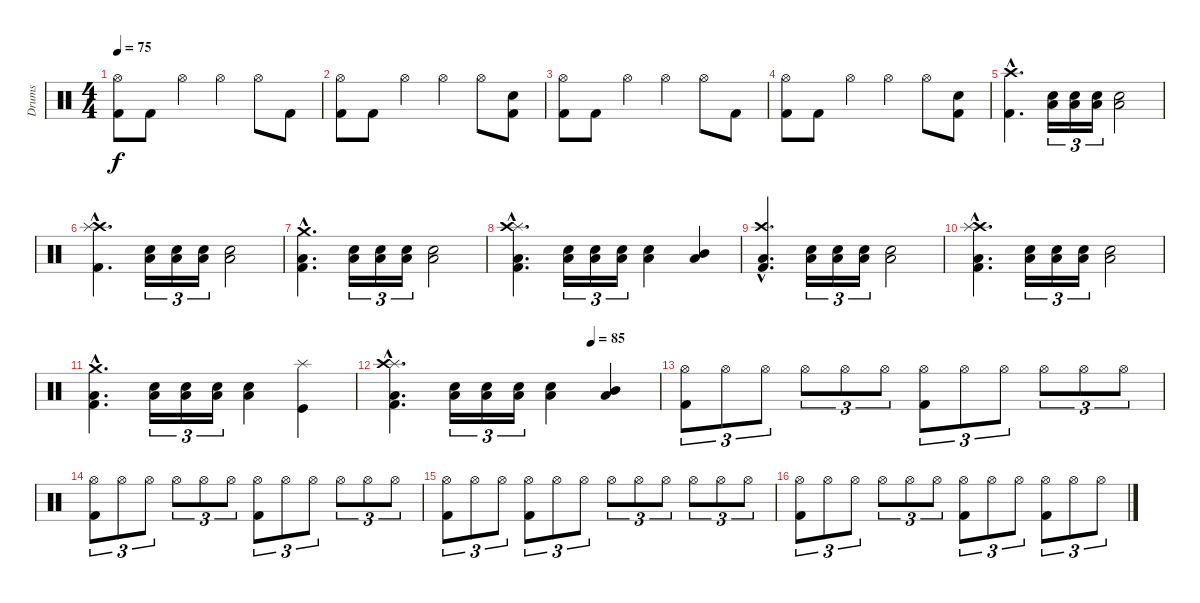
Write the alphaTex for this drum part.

\track ("Drums" "Drums") {instrument percussion}
\staff {score}
\articulation defaults
\ts (4 4)
\tempo 75
\clef neutral
\ks c
("Hi-Hat (open)" "Kick (hit) 2").8{dy f} "Kick (hit) 2".8 "Hi-Hat (open)".4 "Hi-Hat (open)".4 "Hi-Hat (open)".8 "Kick (hit) 2".8 |
("Hi-Hat (open)" "Kick (hit) 2").8 "Kick (hit) 2".8 "Hi-Hat (open)".4 "Hi-Hat (open)".4 "Hi-Hat (open)".8 ("Kick (hit) 2" "Snare (hit) 2").8 |
("Hi-Hat (open)" "Kick (hit) 2").8 "Kick (hit) 2".8 "Hi-Hat (open)".4 "Hi-Hat (open)".4 "Hi-Hat (open)".8 "Kick (hit) 2".8 |
("Hi-Hat (open)" "Kick (hit) 2").8 "Kick (hit) 2".8 "Hi-Hat (open)".4 "Hi-Hat (open)".4 "Hi-Hat (open)".8 ("Kick (hit) 2" "Snare (hit) 2").8 |
("Crash high (hit)"{hac} "Kick (hit) 2"{hac}).4{d} ("Snare (hit) 2" "Low Floor Tom (hit)").16{tu (3 2)} ("Snare (hit) 2" "Low Floor Tom (hit)").16{tu (3 2)} ("Snare (hit) 2" "Low Floor Tom (hit)").16{tu (3 2)} ("Snare (hit) 2" "Low Floor Tom (hit)").2 |
("Crash high (hit)"{hac} "Splash (hit)"{hac} "Kick (hit) 2"{hac}).4{d} ("Snare (hit) 2" "Low Floor Tom (hit)").16{tu (3 2)} ("Snare (hit) 2" "Low Floor Tom (hit)").16{tu (3 2)} ("Snare (hit) 2" "Low Floor Tom (hit)").16{tu (3 2)} ("Snare (hit) 2" "Low Floor Tom (hit)").2 |
("Crash medium (hit)"{hac} "Kick (hit) 2"{hac} "Low Floor Tom (hit)"{hac}).4{d} ("Snare (hit) 2" "Low Floor Tom (hit)").16{tu (3 2)} ("Snare (hit) 2" "Low Floor Tom (hit)").16{tu (3 2)} ("Snare (hit) 2" "Low Floor Tom (hit)").16{tu (3 2)} ("Snare (hit) 2" "Low Floor Tom (hit)").2 |
("Splash (hit)"{hac} "Crash high (hit)"{hac} "Kick (hit) 2"{hac} "Low Floor Tom (hit)"{hac}).4{d} ("Snare (hit) 2" "Low Floor Tom (hit)").16{tu (3 2)} ("Snare (hit) 2" "Low Floor Tom (hit)").16{tu (3 2)} ("Snare (hit) 2" "Low Floor Tom (hit)").16{tu (3 2)} ("Snare (hit) 2" "Low Floor Tom (hit)").4 ("Mid Tom (hit)" "Low Floor Tom (hit)").4 |
("Crash high (hit)"{hac} "Kick (hit) 2"{hac} "Low Floor Tom (hit)"{hac}).4{d} ("Snare (hit) 2" "Low Floor Tom (hit)").16{tu (3 2)} ("Snare (hit) 2" "Low Floor Tom (hit)").16{tu (3 2)} ("Snare (hit) 2" "Low Floor Tom (hit)").16{tu (3 2)} ("Snare (hit) 2" "Low Floor Tom (hit)").2 |
("Crash high (hit)"{hac} "Splash (hit)"{hac} "Kick (hit) 2"{hac} "Low Floor Tom (hit)"{hac}).4{d} ("Snare (hit) 2" "Low Floor Tom (hit)").16{tu (3 2)} ("Snare (hit) 2" "Low Floor Tom (hit)").16{tu (3 2)} ("Snare (hit) 2" "Low Floor Tom (hit)").16{tu (3 2)} ("Snare (hit) 2" "Low Floor Tom (hit)").2 |
("Crash medium (hit)"{hac} "Kick (hit) 2"{hac} "Low Floor Tom (hit)"{hac}).4{d} ("Snare (hit) 2" "Low Floor Tom (hit)").16{tu (3 2)} ("Snare (hit) 2" "Low Floor Tom (hit)").16{tu (3 2)} ("Snare (hit) 2" "Low Floor Tom (hit)").16{tu (3 2)} ("Snare (hit) 2" "Low Floor Tom (hit)").4 ("Splash (hit)" "Kick (hit)").4 |
\tempo (85 0.75)
("Splash (hit)"{hac} "Crash high (hit)"{hac} "Kick (hit) 2"{hac} "Low Floor Tom (hit)"{hac}).4{d} ("Snare (hit) 2" "Low Floor Tom (hit)").16{tu (3 2)} ("Snare (hit) 2" "Low Floor Tom (hit)").16{tu (3 2)} ("Snare (hit) 2" "Low Floor Tom (hit)").16{tu (3 2)} ("Snare (hit) 2" "Low Floor Tom (hit)").4 ("Mid Tom (hit)" "Low Floor Tom (hit)").4 |
("Hi-Hat (open)" "Kick (hit) 2").8{tu (3 2)} "Hi-Hat (open)".8{tu (3 2)} "Hi-Hat (open)".8{tu (3 2)} "Hi-Hat (open)".8{tu (3 2)} "Hi-Hat (open)".8{tu (3 2)} "Hi-Hat (open)".8{tu (3 2)} ("Hi-Hat (open)" "Kick (hit) 2").8{tu (3 2)} "Hi-Hat (open)".8{tu (3 2)} "Hi-Hat (open)".8{tu (3 2)} "Hi-Hat (open)".8{tu (3 2)} "Hi-Hat (open)".8{tu (3 2)} "Hi-Hat (open)".8{tu (3 2)} |
("Hi-Hat (open)" "Kick (hit) 2").8{tu (3 2)} "Hi-Hat (open)".8{tu (3 2)} "Hi-Hat (open)".8{tu (3 2)} "Hi-Hat (open)".8{tu (3 2)} "Hi-Hat (open)".8{tu (3 2)} "Hi-Hat (open)".8{tu (3 2)} ("Hi-Hat (open)" "Kick (hit) 2").8{tu (3 2)} "Hi-Hat (open)".8{tu (3 2)} "Hi-Hat (open)".8{tu (3 2)} "Hi-Hat (open)".8{tu (3 2)} "Hi-Hat (open)".8{tu (3 2)} "Hi-Hat (open)".8{tu (3 2)} |
("Hi-Hat (open)" "Kick (hit) 2").8{tu (3 2)} "Hi-Hat (open)".8{tu (3 2)} "Hi-Hat (open)".8{tu (3 2)} ("Hi-Hat (open)" "Kick (hit) 2").8{tu (3 2)} "Hi-Hat (open)".8{tu (3 2)} "Hi-Hat (open)".8{tu (3 2)} "Hi-Hat (open)".8{tu (3 2)} "Hi-Hat (open)".8{tu (3 2)} "Hi-Hat (open)".8{tu (3 2)} "Hi-Hat (open)".8{tu (3 2)} "Hi-Hat (open)".8{tu (3 2)} "Hi-Hat (open)".8{tu (3 2)} |
("Hi-Hat (open)" "Kick (hit) 2").8{tu (3 2)} "Hi-Hat (open)".8{tu (3 2)} "Hi-Hat (open)".8{tu (3 2)} "Hi-Hat (open)".8{tu (3 2)} "Hi-Hat (open)".8{tu (3 2)} "Hi-Hat (open)".8{tu (3 2)} ("Hi-Hat (open)" "Kick (hit) 2").8{tu (3 2)} "Hi-Hat (open)".8{tu (3 2)} "Hi-Hat (open)".8{tu (3 2)} ("Hi-Hat (open)" "Kick (hit) 2").8{tu (3 2)} "Hi-Hat (open)".8{tu (3 2)} "Hi-Hat (open)".8{tu (3 2)}
